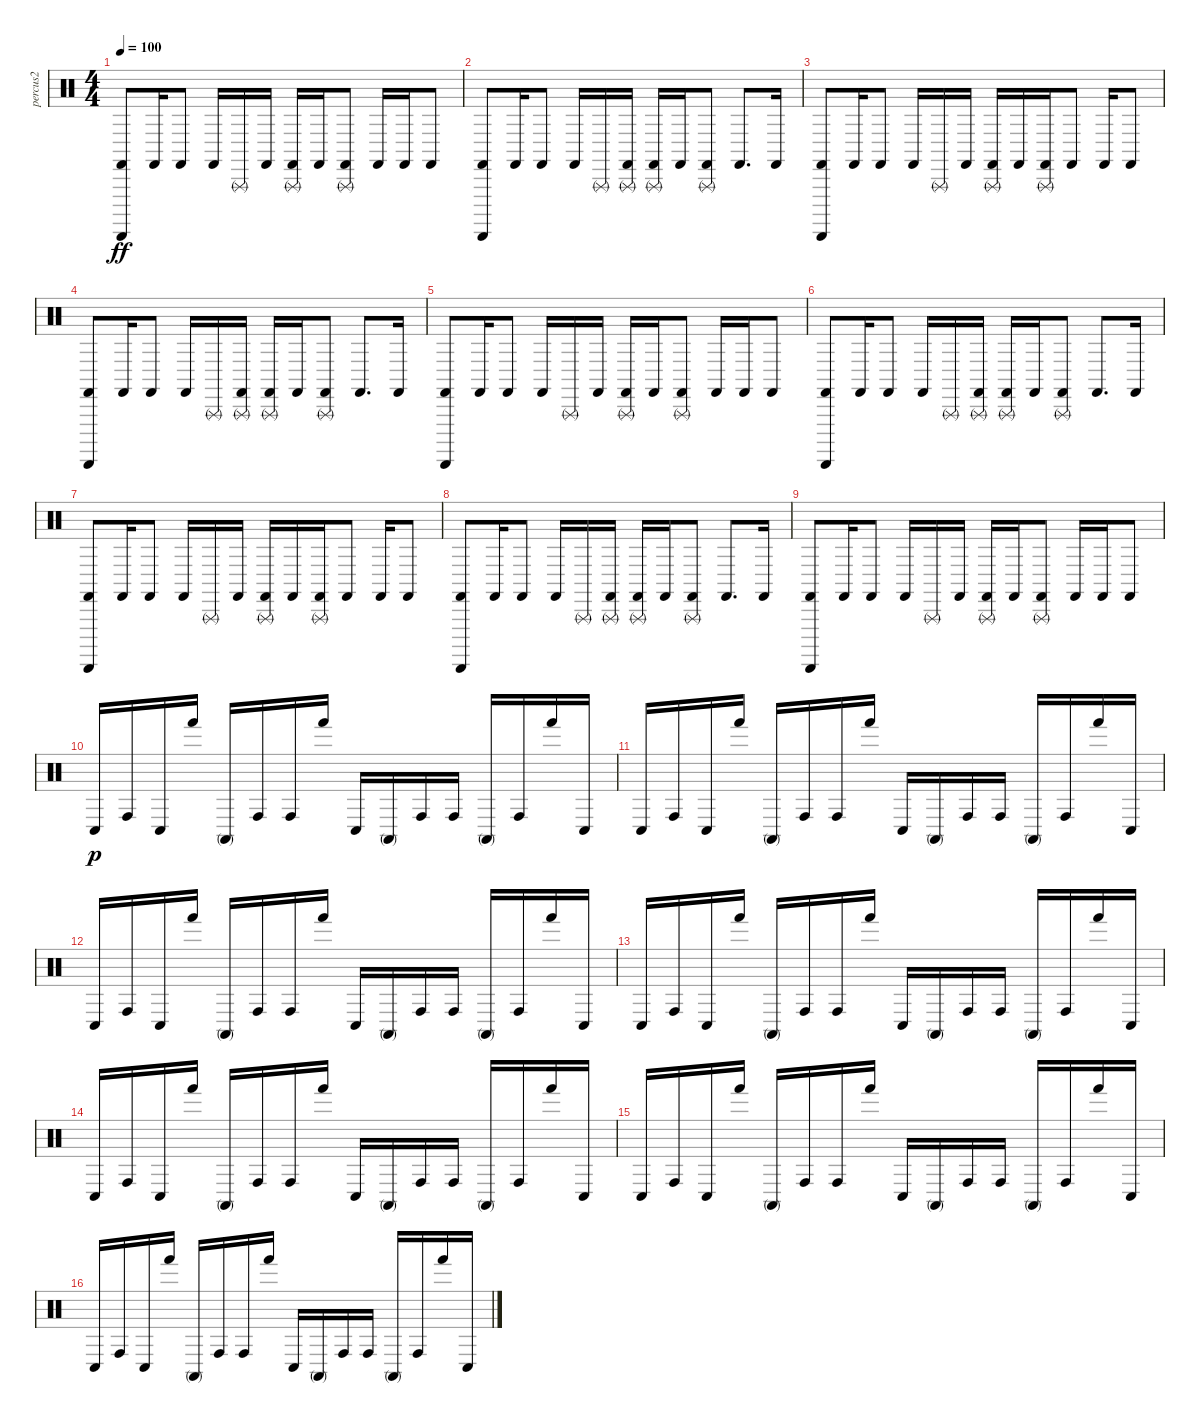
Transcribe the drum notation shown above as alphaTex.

\track ("percus2" "percus2") {instrument percussion}
\staff {score}
\articulation defaults
\ts (4 4)
\tempo 100
\clef neutral
\ks c
("Guiro (scrap-return)" "Castanets (hit)").8{dy ff} "Castanets (hit)".16 "Castanets (hit)".8 "Castanets (hit)".16 "Triangle (rnute)".16 "Castanets (hit)".16 ("Triangle (rnute)" "Castanets (hit)").16 "Castanets (hit)".16 ("Triangle (rnute)" "Castanets (hit)").8 "Castanets (hit)".16 "Castanets (hit)".16 "Castanets (hit)".8 |
("Guiro (scrap-return)" "Castanets (hit)").8 "Castanets (hit)".16 "Castanets (hit)".8 "Castanets (hit)".16 "Triangle (rnute)".16 ("Triangle (rnute)" "Castanets (hit)").16 ("Triangle (rnute)" "Castanets (hit)").16 "Castanets (hit)".16 ("Triangle (rnute)" "Castanets (hit)").8 "Castanets (hit)".8{d} "Castanets (hit)".16 |
("Guiro (scrap-return)" "Castanets (hit)").8 "Castanets (hit)".16 "Castanets (hit)".8 "Castanets (hit)".16 "Triangle (rnute)".16 "Castanets (hit)".16 ("Triangle (rnute)" "Castanets (hit)").16 "Castanets (hit)".16 ("Triangle (rnute)" "Castanets (hit)").16 "Castanets (hit)".8 "Castanets (hit)".16 "Castanets (hit)".8 |
("Guiro (scrap-return)" "Castanets (hit)").8 "Castanets (hit)".16 "Castanets (hit)".8 "Castanets (hit)".16 "Triangle (rnute)".16 ("Triangle (rnute)" "Castanets (hit)").16 ("Triangle (rnute)" "Castanets (hit)").16 "Castanets (hit)".16 ("Triangle (rnute)" "Castanets (hit)").8 "Castanets (hit)".8{d} "Castanets (hit)".16 |
("Guiro (scrap-return)" "Castanets (hit)").8 "Castanets (hit)".16 "Castanets (hit)".8 "Castanets (hit)".16 "Triangle (rnute)".16 "Castanets (hit)".16 ("Triangle (rnute)" "Castanets (hit)").16 "Castanets (hit)".16 ("Triangle (rnute)" "Castanets (hit)").8 "Castanets (hit)".16 "Castanets (hit)".16 "Castanets (hit)".8 |
("Guiro (scrap-return)" "Castanets (hit)").8 "Castanets (hit)".16 "Castanets (hit)".8 "Castanets (hit)".16 "Triangle (rnute)".16 ("Triangle (rnute)" "Castanets (hit)").16 ("Triangle (rnute)" "Castanets (hit)").16 "Castanets (hit)".16 ("Triangle (rnute)" "Castanets (hit)").8 "Castanets (hit)".8{d} "Castanets (hit)".16 |
("Guiro (scrap-return)" "Castanets (hit)").8 "Castanets (hit)".16 "Castanets (hit)".8 "Castanets (hit)".16 "Triangle (rnute)".16 "Castanets (hit)".16 ("Triangle (rnute)" "Castanets (hit)").16 "Castanets (hit)".16 ("Triangle (rnute)" "Castanets (hit)").16 "Castanets (hit)".8 "Castanets (hit)".16 "Castanets (hit)".8 |
("Guiro (scrap-return)" "Castanets (hit)").8 "Castanets (hit)".16 "Castanets (hit)".8 "Castanets (hit)".16 "Triangle (rnute)".16 ("Triangle (rnute)" "Castanets (hit)").16 ("Triangle (rnute)" "Castanets (hit)").16 "Castanets (hit)".16 ("Triangle (rnute)" "Castanets (hit)").8 "Castanets (hit)".8{d} "Castanets (hit)".16 |
("Guiro (scrap-return)" "Castanets (hit)").8 "Castanets (hit)".16 "Castanets (hit)".8 "Castanets (hit)".16 "Triangle (rnute)".16 "Castanets (hit)".16 ("Triangle (rnute)" "Castanets (hit)").16 "Castanets (hit)".16 ("Triangle (rnute)" "Castanets (hit)").8 "Castanets (hit)".16 "Castanets (hit)".16 "Castanets (hit)".8 |
"Conga low (hit)".16{dy p} "Conga high (hit)".16 "Conga low (hit)".16 "Hand (hit)".16 "Conga high (mute)".16 "Conga high (hit)".16 "Conga high (hit)".16 "Hand (hit)".16 "Conga low (hit)".16 "Conga high (mute)".16 "Conga high (hit)".16 "Conga high (hit)".16 "Conga high (mute)".16 "Conga high (hit)".16 "Hand (hit)".16 "Conga low (hit)".16 |
"Conga low (hit)".16 "Conga high (hit)".16 "Conga low (hit)".16 "Hand (hit)".16 "Conga high (mute)".16 "Conga high (hit)".16 "Conga high (hit)".16 "Hand (hit)".16 "Conga low (hit)".16 "Conga high (mute)".16 "Conga high (hit)".16 "Conga high (hit)".16 "Conga high (mute)".16 "Conga high (hit)".16 "Hand (hit)".16 "Conga low (hit)".16 |
"Conga low (hit)".16 "Conga high (hit)".16 "Conga low (hit)".16 "Hand (hit)".16 "Conga high (mute)".16 "Conga high (hit)".16 "Conga high (hit)".16 "Hand (hit)".16 "Conga low (hit)".16 "Conga high (mute)".16 "Conga high (hit)".16 "Conga high (hit)".16 "Conga high (mute)".16 "Conga high (hit)".16 "Hand (hit)".16 "Conga low (hit)".16 |
"Conga low (hit)".16 "Conga high (hit)".16 "Conga low (hit)".16 "Hand (hit)".16 "Conga high (mute)".16 "Conga high (hit)".16 "Conga high (hit)".16 "Hand (hit)".16 "Conga low (hit)".16 "Conga high (mute)".16 "Conga high (hit)".16 "Conga high (hit)".16 "Conga high (mute)".16 "Conga high (hit)".16 "Hand (hit)".16 "Conga low (hit)".16 |
"Conga low (hit)".16 "Conga high (hit)".16 "Conga low (hit)".16 "Hand (hit)".16 "Conga high (mute)".16 "Conga high (hit)".16 "Conga high (hit)".16 "Hand (hit)".16 "Conga low (hit)".16 "Conga high (mute)".16 "Conga high (hit)".16 "Conga high (hit)".16 "Conga high (mute)".16 "Conga high (hit)".16 "Hand (hit)".16 "Conga low (hit)".16 |
"Conga low (hit)".16 "Conga high (hit)".16 "Conga low (hit)".16 "Hand (hit)".16 "Conga high (mute)".16 "Conga high (hit)".16 "Conga high (hit)".16 "Hand (hit)".16 "Conga low (hit)".16 "Conga high (mute)".16 "Conga high (hit)".16 "Conga high (hit)".16 "Conga high (mute)".16 "Conga high (hit)".16 "Hand (hit)".16 "Conga low (hit)".16 |
"Conga low (hit)".16 "Conga high (hit)".16 "Conga low (hit)".16 "Hand (hit)".16 "Conga high (mute)".16 "Conga high (hit)".16 "Conga high (hit)".16 "Hand (hit)".16 "Conga low (hit)".16 "Conga high (mute)".16 "Conga high (hit)".16 "Conga high (hit)".16 "Conga high (mute)".16 "Conga high (hit)".16 "Hand (hit)".16 "Conga low (hit)".16
